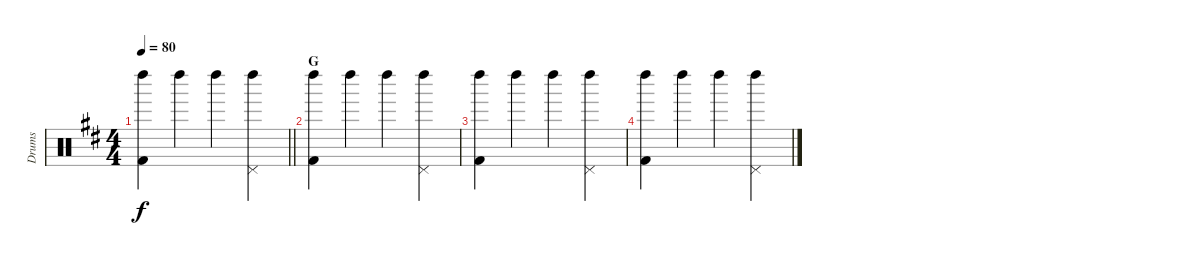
\track ("Drums" "Drums") {instrument percussion}
\staff {score}
\articulation defaults
\ts (4 4)
\tempo 80
\clef neutral
\barLineRight lightlight
\ks d
("Left Maraca (hit)" "Kick (hit) 2").4{dy f} "Left Maraca (hit)".4 "Left Maraca (hit)".4 ("Left Maraca (hit)" "Pedal Hi-Hat (hit)").4 |
\section ("" "G")
("Left Maraca (hit)" "Kick (hit) 2").4 "Left Maraca (hit)".4 "Left Maraca (hit)".4 ("Left Maraca (hit)" "Pedal Hi-Hat (hit)").4 |
("Left Maraca (hit)" "Kick (hit) 2").4 "Left Maraca (hit)".4 "Left Maraca (hit)".4 ("Left Maraca (hit)" "Pedal Hi-Hat (hit)").4 |
("Left Maraca (hit)" "Kick (hit) 2").4 "Left Maraca (hit)".4 "Left Maraca (hit)".4 ("Left Maraca (hit)" "Pedal Hi-Hat (hit)").4
